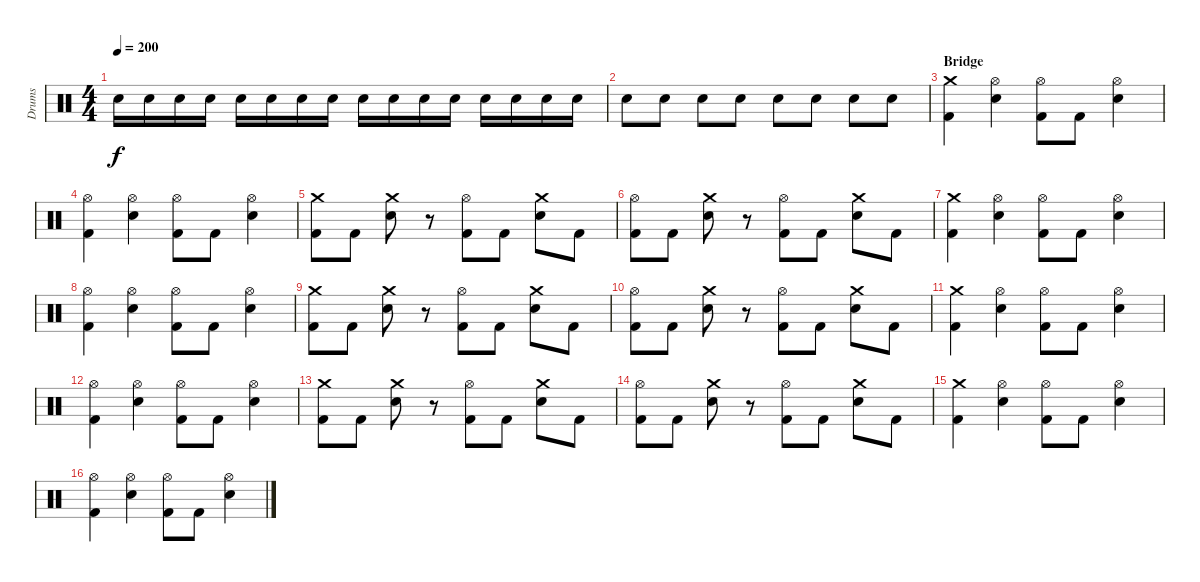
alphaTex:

\track ("Drums" "Drums") {instrument percussion}
\staff {score}
\articulation defaults
\ts (4 4)
\tempo 200
\clef neutral
\ks c "Snare (hit) 2".16{dy f} "Snare (hit) 2".16 "Snare (hit) 2".16 "Snare (hit) 2".16 "Snare (hit) 2".16 "Snare (hit) 2".16 "Snare (hit) 2".16 "Snare (hit) 2".16 "Snare (hit) 2".16 "Snare (hit) 2".16 "Snare (hit) 2".16 "Snare (hit) 2".16 "Snare (hit) 2".16 "Snare (hit) 2".16 "Snare (hit) 2".16 "Snare (hit) 2".16
|
"Snare (hit) 2".8 "Snare (hit) 2".8 "Snare (hit) 2".8 "Snare (hit) 2".8 "Snare (hit) 2".8 "Snare (hit) 2".8 "Snare (hit) 2".8 "Snare (hit) 2".8 |
\section ("" "Bridge")
("Crash medium (hit)" "Kick (hit) 2").4 ("Hi-Hat (open)" "Electric Snare (hit)").4 ("Hi-Hat (open)" "Kick (hit) 2").8 "Kick (hit) 2".8 ("Hi-Hat (open)" "Electric Snare (hit)").4 |
("Hi-Hat (open)" "Kick (hit) 2").4 ("Hi-Hat (open)" "Electric Snare (hit)").4 ("Hi-Hat (open)" "Kick (hit) 2").8 "Kick (hit) 2".8 ("Hi-Hat (open)" "Electric Snare (hit)").4 |
("Crash medium (hit)" "Kick (hit) 2").8 "Kick (hit) 2".8 ("Crash medium (hit)" "Snare (hit) 2").8 r.8 ("Hi-Hat (open)" "Kick (hit) 2").8 "Kick (hit) 2".8 ("Crash medium (hit)" "Snare (hit) 2").8 "Kick (hit) 2".8 |
("Hi-Hat (open)" "Kick (hit) 2").8 "Kick (hit) 2".8 ("Crash medium (hit)" "Snare (hit) 2").8 r.8 ("Hi-Hat (open)" "Kick (hit) 2").8 "Kick (hit) 2".8 ("Crash medium (hit)" "Snare (hit) 2").8 "Kick (hit) 2".8 |
("Crash medium (hit)" "Kick (hit) 2").4 ("Hi-Hat (open)" "Electric Snare (hit)").4 ("Hi-Hat (open)" "Kick (hit) 2").8 "Kick (hit) 2".8 ("Hi-Hat (open)" "Electric Snare (hit)").4 |
("Hi-Hat (open)" "Kick (hit) 2").4 ("Hi-Hat (open)" "Electric Snare (hit)").4 ("Hi-Hat (open)" "Kick (hit) 2").8 "Kick (hit) 2".8 ("Hi-Hat (open)" "Electric Snare (hit)").4 |
("Crash medium (hit)" "Kick (hit) 2").8 "Kick (hit) 2".8 ("Crash medium (hit)" "Snare (hit) 2").8 r.8 ("Hi-Hat (open)" "Kick (hit) 2").8 "Kick (hit) 2".8 ("Crash medium (hit)" "Snare (hit) 2").8 "Kick (hit) 2".8 |
("Hi-Hat (open)" "Kick (hit) 2").8 "Kick (hit) 2".8 ("Crash medium (hit)" "Snare (hit) 2").8 r.8 ("Hi-Hat (open)" "Kick (hit) 2").8 "Kick (hit) 2".8 ("Crash medium (hit)" "Snare (hit) 2").8 "Kick (hit) 2".8 |
("Crash medium (hit)" "Kick (hit) 2").4 ("Hi-Hat (open)" "Electric Snare (hit)").4 ("Hi-Hat (open)" "Kick (hit) 2").8 "Kick (hit) 2".8 ("Hi-Hat (open)" "Electric Snare (hit)").4 |
("Hi-Hat (open)" "Kick (hit) 2").4 ("Hi-Hat (open)" "Electric Snare (hit)").4 ("Hi-Hat (open)" "Kick (hit) 2").8 "Kick (hit) 2".8 ("Hi-Hat (open)" "Electric Snare (hit)").4 |
("Crash medium (hit)" "Kick (hit) 2").8 "Kick (hit) 2".8 ("Crash medium (hit)" "Snare (hit) 2").8 r.8 ("Hi-Hat (open)" "Kick (hit) 2").8 "Kick (hit) 2".8 ("Crash medium (hit)" "Snare (hit) 2").8 "Kick (hit) 2".8 |
("Hi-Hat (open)" "Kick (hit) 2").8 "Kick (hit) 2".8 ("Crash medium (hit)" "Snare (hit) 2").8 r.8 ("Hi-Hat (open)" "Kick (hit) 2").8 "Kick (hit) 2".8 ("Crash medium (hit)" "Snare (hit) 2").8 "Kick (hit) 2".8 |
("Crash medium (hit)" "Kick (hit) 2").4 ("Hi-Hat (open)" "Electric Snare (hit)").4 ("Hi-Hat (open)" "Kick (hit) 2").8 "Kick (hit) 2".8 ("Hi-Hat (open)" "Electric Snare (hit)").4 |
("Hi-Hat (open)" "Kick (hit) 2").4 ("Hi-Hat (open)" "Electric Snare (hit)").4 ("Hi-Hat (open)" "Kick (hit) 2").8 "Kick (hit) 2".8 ("Hi-Hat (open)" "Electric Snare (hit)").4
